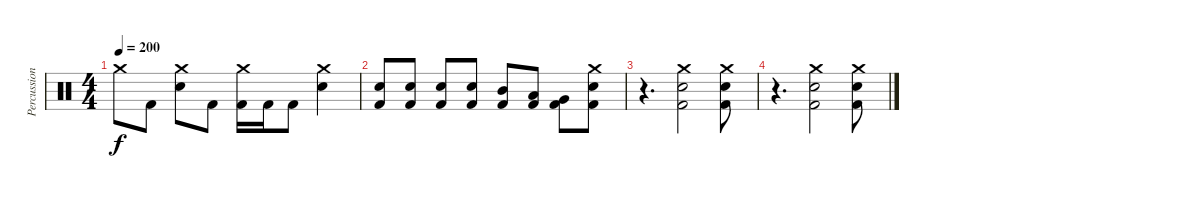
\track ("Percussion" "Percussion") {instrument percussion}
\staff {score}
\articulation defaults
\ts (4 4)
\tempo 200
\clef neutral
\ks c "Crash medium (hit)".8{dy f} "Kick (hit) 2".8
("Crash medium (hit)" "Snare (hit) 2").8 "Kick (hit) 2".8 ("Crash medium (hit)" "Kick (hit) 2").16 "Kick (hit) 2".16 "Kick (hit) 2".8 ("Crash medium (hit)" "Snare (hit) 2").4 |
("Snare (hit) 2" "Kick (hit) 2").8 ("Snare (hit) 2" "Kick (hit) 2").8 ("Snare (hit) 2" "Kick (hit) 2").8 ("Snare (hit) 2" "Kick (hit) 2").8 ("Mid Tom (hit)" "Kick (hit) 2").8 ("Low Tom (hit)" "Kick (hit) 2").8 ("Very Low Tom (hit)" "Kick (hit) 2").8 ("Crash medium (hit)" "Snare (hit) 2" "Kick (hit) 2").8 |
r.4{d} ("Crash medium (hit)" "Snare (hit) 2" "Kick (hit) 2").2 ("Crash medium (hit)" "Snare (hit) 2" "Kick (hit) 2").8 |
r.4{d} ("Crash medium (hit)" "Snare (hit) 2" "Kick (hit) 2").2 ("Crash medium (hit)" "Snare (hit) 2" "Kick (hit) 2").8
